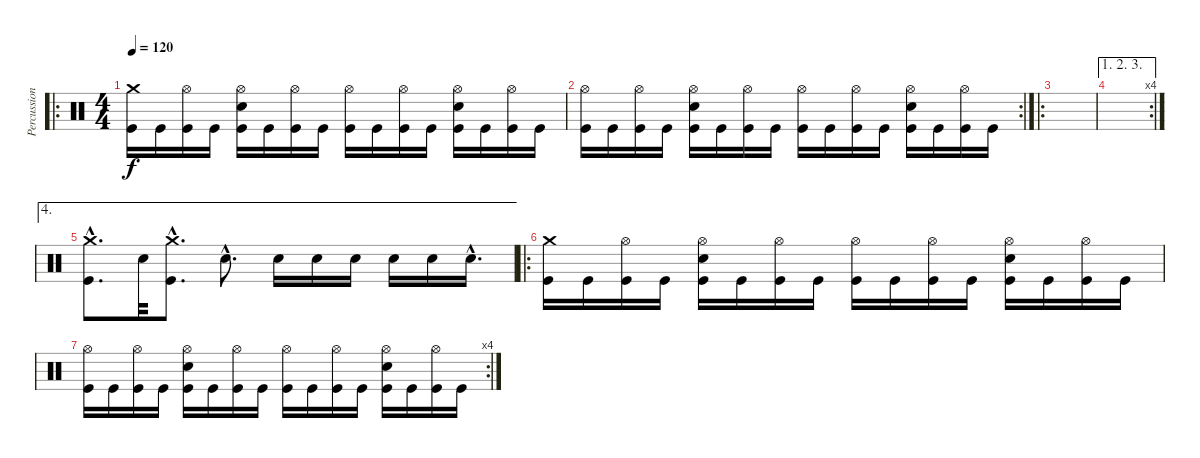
\track ("Percussion" "Percussion") {instrument percussion}
\staff {score}
\articulation defaults
\ro
\ts (4 4)
\tempo 120
\clef neutral
\ks c
("Crash medium (hit)" "Kick (hit)").16{dy f} "Kick (hit)".16 ("Hi-Hat (open)" "Kick (hit)").16 "Kick (hit)".16 ("Hi-Hat (open)" "Snare (hit) 2" "Kick (hit)").16 "Kick (hit)".16 ("Hi-Hat (open)" "Kick (hit)").16 "Kick (hit)".16 ("Hi-Hat (open)" "Kick (hit)").16 "Kick (hit)".16 ("Hi-Hat (open)" "Kick (hit)").16 "Kick (hit)".16 ("Hi-Hat (open)" "Snare (hit) 2" "Kick (hit)").16 "Kick (hit)".16 ("Hi-Hat (open)" "Kick (hit)").16 "Kick (hit)".16 |
\rc 2
("Hi-Hat (open)" "Kick (hit)").16 "Kick (hit)".16 ("Hi-Hat (open)" "Kick (hit)").16 "Kick (hit)".16 ("Hi-Hat (open)" "Snare (hit) 2" "Kick (hit)").16 "Kick (hit)".16 ("Hi-Hat (open)" "Kick (hit)").16 "Kick (hit)".16 ("Hi-Hat (open)" "Kick (hit)").16 "Kick (hit)".16 ("Hi-Hat (open)" "Kick (hit)").16 "Kick (hit)".16 ("Hi-Hat (open)" "Snare (hit) 2" "Kick (hit)").16 "Kick (hit)".16 ("Hi-Hat (open)" "Kick (hit)").16 "Kick (hit)".16 |
\ro
|
\ae (1 2 3)
\rc 4
|
\ae 4
("Crash medium (hit)"{hac} "Kick (hit)"{hac}).8{d} "Snare (hit) 2".32 ("Crash medium (hit)"{hac} "Kick (hit)"{hac}).8{d} "Snare (hit) 2"{hac}.8{d} "Snare (hit) 2".16 "Snare (hit) 2".16 "Snare (hit) 2".16 "Snare (hit) 2".16 "Snare (hit) 2".16 "Snare (hit) 2"{hac}.16{d} |
\ro
("Crash medium (hit)" "Kick (hit)").16 "Kick (hit)".16 ("Hi-Hat (open)" "Kick (hit)").16 "Kick (hit)".16 ("Hi-Hat (open)" "Snare (hit) 2" "Kick (hit)").16 "Kick (hit)".16 ("Hi-Hat (open)" "Kick (hit)").16 "Kick (hit)".16 ("Hi-Hat (open)" "Kick (hit)").16 "Kick (hit)".16 ("Hi-Hat (open)" "Kick (hit)").16 "Kick (hit)".16 ("Hi-Hat (open)" "Snare (hit) 2" "Kick (hit)").16 "Kick (hit)".16 ("Hi-Hat (open)" "Kick (hit)").16 "Kick (hit)".16 |
\rc 4
("Hi-Hat (open)" "Kick (hit)").16 "Kick (hit)".16 ("Hi-Hat (open)" "Kick (hit)").16 "Kick (hit)".16 ("Hi-Hat (open)" "Snare (hit) 2" "Kick (hit)").16 "Kick (hit)".16 ("Hi-Hat (open)" "Kick (hit)").16 "Kick (hit)".16 ("Hi-Hat (open)" "Kick (hit)").16 "Kick (hit)".16 ("Hi-Hat (open)" "Kick (hit)").16 "Kick (hit)".16 ("Hi-Hat (open)" "Snare (hit) 2" "Kick (hit)").16 "Kick (hit)".16 ("Hi-Hat (open)" "Kick (hit)").16 "Kick (hit)".16
